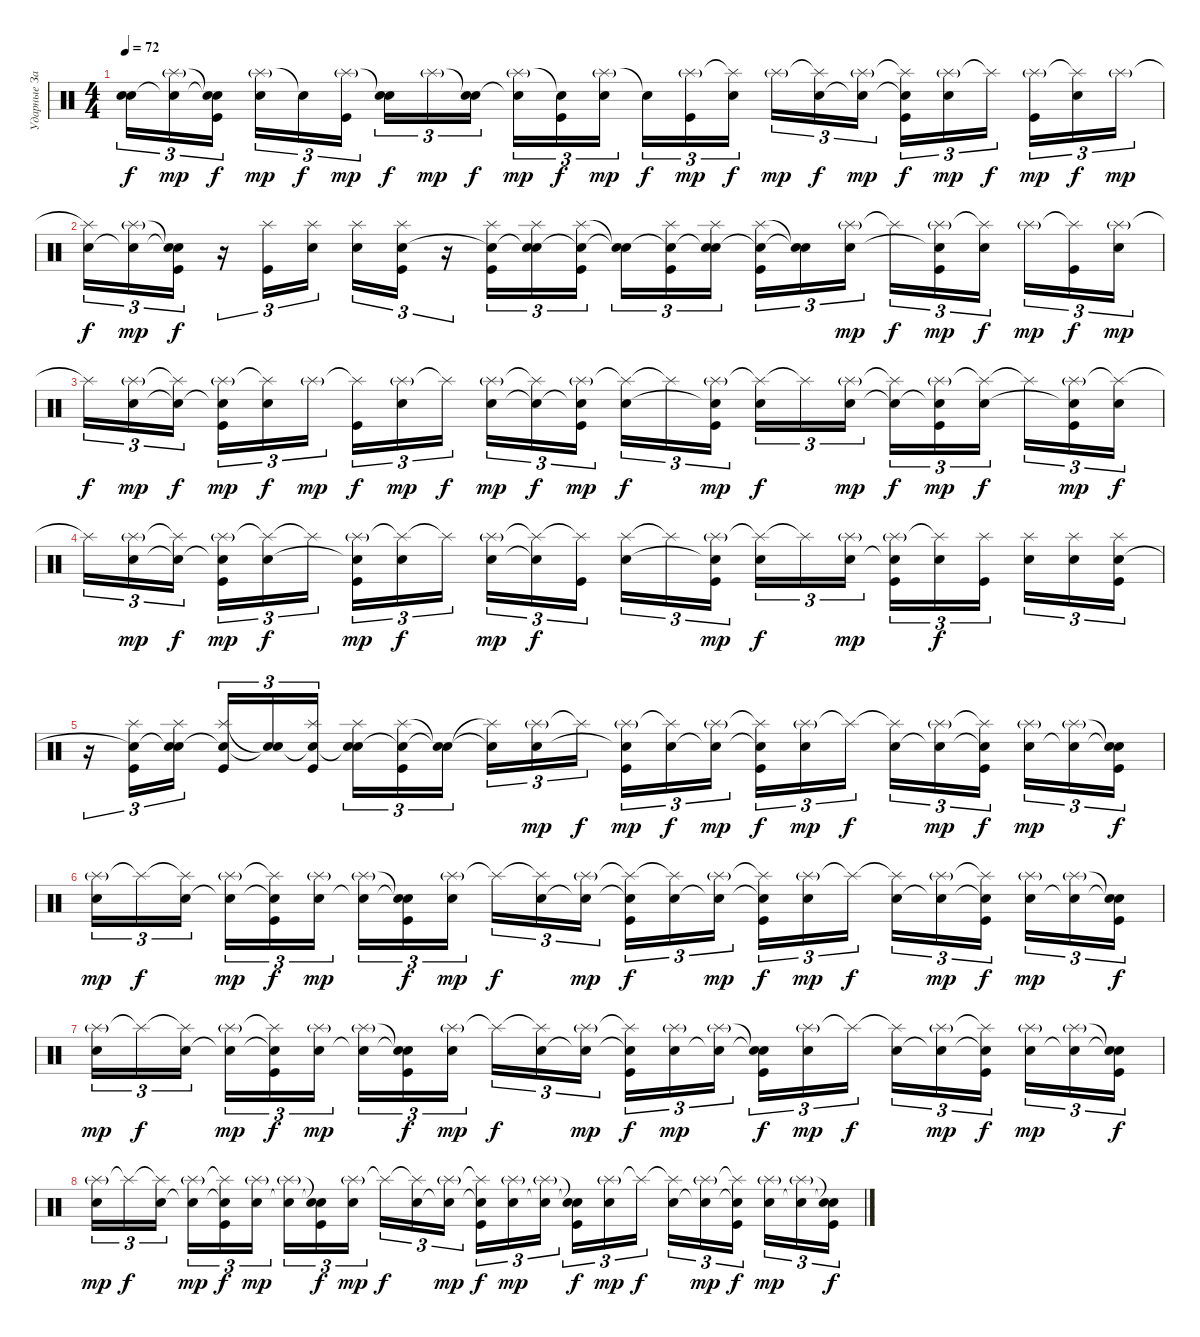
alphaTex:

\track ("Ударные Запарили(" "Ударные За") {instrument percussion}
\staff {score}
\articulation defaults
\ts (4 4)
\tempo 72
\clef neutral
\ks c
("Snare (hit)"{t} "Snare (hit) 2").16{tu (3 2) dy f} ("Splash (hit)"{g} "Snare (hit) 2"{t}).16{tu (3 2) dy mp} ("Snare (hit)"{t} "Snare (hit) 2"{t} "Kick (hit)").16{tu (3 2) dy f beam splitsecondary} ("Splash (hit)"{g} "Snare (hit) 2").16{tu (3 2) dy mp} "Snare (hit)"{t}.16{tu (3 2) dy f} ("Splash (hit)"{g} "Kick (hit)").16{tu (3 2) dy mp} ("Snare (hit)"{t} "Snare (hit) 2").16{tu (3 2) dy f} "Splash (hit)"{g}.16{tu (3 2) dy mp} ("Snare (hit)"{t} "Snare (hit) 2").16{tu (3 2) dy f beam splitsecondary} ("Splash (hit)"{g} "Snare (hit) 2"{t}).16{tu (3 2) dy mp} ("Snare (hit) 2"{t} "Kick (hit)").16{tu (3 2) dy f} ("Splash (hit)"{g} "Snare (hit) 2").16{tu (3 2) dy mp} "Snare (hit)"{t}.16{tu (3 2) dy f} ("Splash (hit)"{g} "Kick (hit)").16{tu (3 2) dy mp} ("Splash (hit)"{t} "Snare (hit) 2").16{tu (3 2) dy f beam splitsecondary} "Splash (hit)"{g}.16{tu (3 2) dy mp} ("Splash (hit)"{t} "Snare (hit) 2").16{tu (3 2) dy f} ("Splash (hit)"{g} "Snare (hit) 2"{t}).16{tu (3 2) dy mp} ("Splash (hit)"{t} "Snare (hit) 2"{t} "Kick (hit)").16{tu (3 2) dy f} ("Splash (hit)"{g} "Snare (hit) 2").16{tu (3 2) dy mp} "Splash (hit)"{t}.16{tu (3 2) dy f beam splitsecondary} ("Splash (hit)"{g} "Kick (hit)").16{tu (3 2) dy mp} ("Splash (hit)"{t} "Snare (hit) 2").16{tu (3 2) dy f} "Splash (hit)"{g}.16{tu (3 2) dy mp} |
("Splash (hit)"{t} "Snare (hit) 2").16{tu (3 2) dy f} ("Splash (hit)"{g} "Snare (hit) 2"{t}).16{tu (3 2) dy mp} ("Snare (hit)"{t} "Snare (hit) 2"{t} "Kick (hit)").16{tu (3 2) dy f} r.16{tu (3 2)} ("Splash (hit)" "Kick (hit)").16{tu (3 2)} ("Splash (hit)" "Snare (hit) 2").16{tu (3 2)} ("Splash (hit)" "Snare (hit) 2").16{tu (3 2)} ("Splash (hit)" "Snare (hit) 2" "Kick (hit)").16{tu (3 2)} r.16{tu (3 2)} ("Splash (hit)" "Snare (hit) 2"{t} "Kick (hit)").16{tu (3 2)} ("Splash (hit)" "Snare (hit) 2"{t} "Snare (hit) 2").16{tu (3 2)} ("Splash (hit)" "Snare (hit) 2"{t} "Kick (hit)").16{tu (3 2)} ("Snare (hit)"{t} "Snare (hit)"{t}).16{tu (3 2)} ("Splash (hit)" "Snare (hit) 2"{t} "Kick (hit)").16{tu (3 2)} ("Splash (hit)" "Snare (hit) 2"{t} "Snare (hit) 2").16{tu (3 2) beam splitsecondary} ("Splash (hit)" "Snare (hit) 2"{t} "Kick (hit)").16{tu (3 2)} ("Snare (hit)"{t} "Snare (hit)"{t}).16{tu (3 2)} ("Splash (hit)"{g} "Snare (hit) 2").16{tu (3 2) dy mp} "Splash (hit)"{t}.16{tu (3 2) dy f} ("Splash (hit)"{g} "Snare (hit) 2"{t} "Kick (hit)").16{tu (3 2) dy mp} ("Splash (hit)"{t} "Snare (hit) 2").16{tu (3 2) dy f beam splitsecondary} "Splash (hit)"{g}.16{tu (3 2) dy mp} ("Splash (hit)"{t} "Kick (hit)").16{tu (3 2) dy f} ("Splash (hit)"{g} "Snare (hit) 2").16{tu (3 2) dy mp} |
"Splash (hit)"{t}.16{tu (3 2) dy f} ("Splash (hit)"{g} "Snare (hit) 2").16{tu (3 2) dy mp} ("Splash (hit)"{t} "Snare (hit) 2"{t}).16{tu (3 2) dy f beam splitsecondary} ("Splash (hit)"{g} "Snare (hit) 2"{t} "Kick (hit)").16{tu (3 2) dy mp} ("Splash (hit)"{t} "Snare (hit) 2").16{tu (3 2) dy f} "Splash (hit)"{g}.16{tu (3 2) dy mp} ("Splash (hit)"{t} "Kick (hit)").16{tu (3 2) dy f} ("Splash (hit)"{g} "Snare (hit) 2").16{tu (3 2) dy mp} "Splash (hit)"{t}.16{tu (3 2) dy f beam splitsecondary} ("Splash (hit)"{g} "Snare (hit) 2").16{tu (3 2) dy mp} ("Splash (hit)"{t} "Snare (hit) 2"{t}).16{tu (3 2) dy f} ("Splash (hit)"{g} "Snare (hit) 2"{t} "Kick (hit)").16{tu (3 2) dy mp} ("Splash (hit)"{t} "Snare (hit) 2").16{tu (3 2) dy f} "Splash (hit)"{t}.16{tu (3 2)} ("Splash (hit)"{g} "Snare (hit) 2"{t} "Kick (hit)").16{tu (3 2) dy mp beam splitsecondary} ("Splash (hit)"{t} "Snare (hit) 2").16{tu (3 2) dy f} "Splash (hit)"{t}.16{tu (3 2)} ("Splash (hit)"{g} "Snare (hit) 2").16{tu (3 2) dy mp} ("Splash (hit)"{t} "Snare (hit) 2"{t}).16{tu (3 2) dy f} ("Splash (hit)"{g} "Snare (hit) 2"{t} "Kick (hit)").16{tu (3 2) dy mp} ("Splash (hit)"{t} "Snare (hit) 2").16{tu (3 2) dy f beam splitsecondary} "Splash (hit)"{t}.16{tu (3 2)} ("Splash (hit)"{g} "Snare (hit) 2"{t} "Kick (hit)").16{tu (3 2) dy mp} ("Splash (hit)"{t} "Snare (hit) 2").16{tu (3 2) dy f} |
"Splash (hit)"{t}.16{tu (3 2)} ("Splash (hit)"{g} "Snare (hit) 2").16{tu (3 2) dy mp} ("Splash (hit)"{t} "Snare (hit) 2"{t}).16{tu (3 2) dy f beam splitsecondary} ("Splash (hit)"{g} "Snare (hit) 2"{t} "Kick (hit)").16{tu (3 2) dy mp} ("Splash (hit)"{t} "Snare (hit) 2").16{tu (3 2) dy f} "Splash (hit)"{t}.16{tu (3 2)} ("Splash (hit)"{g} "Snare (hit) 2"{t} "Kick (hit)").16{tu (3 2) dy mp} ("Splash (hit)"{t} "Snare (hit) 2").16{tu (3 2) dy f} "Splash (hit)"{t}.16{tu (3 2) beam splitsecondary} ("Splash (hit)"{g} "Snare (hit) 2").16{tu (3 2) dy mp} ("Splash (hit)"{t} "Snare (hit) 2"{t}).16{tu (3 2) dy f} ("Splash (hit)"{t} "Kick (hit)").16{tu (3 2)} ("Splash (hit)" "Snare (hit) 2").16{tu (3 2)} "Splash (hit)"{t}.16{tu (3 2)} ("Splash (hit)"{g} "Snare (hit) 2"{t} "Kick (hit)").16{tu (3 2) dy mp beam splitsecondary} ("Splash (hit)"{t} "Snare (hit) 2").16{tu (3 2) dy f} "Splash (hit)"{t}.16{tu (3 2)} ("Splash (hit)"{g} "Snare (hit) 2").16{tu (3 2) dy mp} ("Splash (hit)"{g} "Snare (hit) 2"{t} "Kick (hit)").16{tu (3 2)} ("Splash (hit)"{t} "Snare (hit) 2").16{tu (3 2) dy f} ("Splash (hit)" "Kick (hit)").16{tu (3 2) beam splitsecondary} ("Splash (hit)" "Snare (hit) 2").16{tu (3 2)} ("Splash (hit)" "Snare (hit) 2").16{tu (3 2)} ("Splash (hit)" "Snare (hit) 2" "Kick (hit)").16{tu (3 2)} |
r.16{tu (3 2)} ("Splash (hit)" "Snare (hit) 2"{t} "Kick (hit)").16{tu (3 2)} ("Splash (hit)" "Snare (hit) 2"{t} "Snare (hit) 2").16{tu (3 2) beam splitsecondary} ("Splash (hit)" "Snare (hit) 2"{t} "Kick (hit)").16{tu (3 2)} ("Snare (hit)"{t} "Snare (hit)"{t}).16{tu (3 2)} ("Splash (hit)" "Snare (hit) 2"{t} "Kick (hit)").16{tu (3 2)} ("Splash (hit)" "Snare (hit) 2"{t} "Snare (hit) 2").16{tu (3 2)} ("Splash (hit)" "Snare (hit) 2"{t} "Kick (hit)").16{tu (3 2)} ("Snare (hit)"{t} "Snare (hit)"{t}).16{tu (3 2) beam splitsecondary} ("Splash (hit)"{t} "Snare (hit) 2"{t}).16{tu (3 2)} ("Splash (hit)"{g} "Snare (hit) 2").16{tu (3 2) dy mp} "Splash (hit)"{t}.16{tu (3 2) dy f} ("Splash (hit)"{g} "Snare (hit) 2"{t} "Kick (hit)").16{tu (3 2) dy mp} ("Splash (hit)"{t} "Snare (hit) 2").16{tu (3 2) dy f} ("Splash (hit)"{g} "Snare (hit) 2"{t}).16{tu (3 2) dy mp beam splitsecondary} ("Splash (hit)"{t} "Snare (hit) 2"{t} "Kick (hit)").16{tu (3 2) dy f} ("Splash (hit)"{g} "Snare (hit) 2").16{tu (3 2) dy mp} "Splash (hit)"{t}.16{tu (3 2) dy f} ("Splash (hit)"{t} "Snare (hit) 2").16{tu (3 2)} ("Splash (hit)"{g} "Snare (hit) 2"{t}).16{tu (3 2) dy mp} ("Splash (hit)"{t} "Snare (hit) 2"{t} "Kick (hit)").16{tu (3 2) dy f beam splitsecondary} ("Splash (hit)"{g} "Snare (hit) 2").16{tu (3 2) dy mp} ("Splash (hit)"{g} "Snare (hit) 2"{t}).16{tu (3 2)} ("Snare (hit)"{t} "Snare (hit) 2"{t} "Kick (hit)").16{tu (3 2) dy f} |
("Splash (hit)"{g} "Snare (hit) 2").16{tu (3 2) dy mp} "Splash (hit)"{t}.16{tu (3 2) dy f} ("Splash (hit)"{t} "Snare (hit) 2").16{tu (3 2) beam splitsecondary} ("Splash (hit)"{g} "Snare (hit) 2"{t}).16{tu (3 2) dy mp} ("Splash (hit)"{t} "Snare (hit) 2"{t} "Kick (hit)").16{tu (3 2) dy f} ("Splash (hit)"{g} "Snare (hit) 2").16{tu (3 2) dy mp} ("Splash (hit)"{g} "Snare (hit) 2"{t}).16{tu (3 2)} ("Snare (hit)"{t} "Snare (hit) 2"{t} "Kick (hit)").16{tu (3 2) dy f} ("Splash (hit)"{g} "Snare (hit) 2").16{tu (3 2) dy mp beam splitsecondary} "Splash (hit)"{t}.16{tu (3 2) dy f} ("Splash (hit)"{t} "Snare (hit) 2").16{tu (3 2)} ("Splash (hit)"{g} "Snare (hit) 2"{t}).16{tu (3 2) dy mp} ("Splash (hit)"{t} "Snare (hit) 2"{t} "Kick (hit)").16{tu (3 2) dy f} ("Splash (hit)"{t} "Snare (hit) 2").16{tu (3 2)} ("Splash (hit)"{g} "Snare (hit) 2"{t}).16{tu (3 2) dy mp beam splitsecondary} ("Splash (hit)"{t} "Snare (hit) 2"{t} "Kick (hit)").16{tu (3 2) dy f} ("Splash (hit)"{g} "Snare (hit) 2").16{tu (3 2) dy mp} "Splash (hit)"{t}.16{tu (3 2) dy f} ("Splash (hit)"{t} "Snare (hit) 2").16{tu (3 2)} ("Splash (hit)"{g} "Snare (hit) 2"{t}).16{tu (3 2) dy mp} ("Splash (hit)"{t} "Snare (hit) 2"{t} "Kick (hit)").16{tu (3 2) dy f beam splitsecondary} ("Splash (hit)"{g} "Snare (hit) 2").16{tu (3 2) dy mp} ("Splash (hit)"{g} "Snare (hit) 2"{t}).16{tu (3 2)} ("Snare (hit)"{t} "Snare (hit) 2"{t} "Kick (hit)").16{tu (3 2) dy f} |
("Splash (hit)"{g} "Snare (hit) 2").16{tu (3 2) dy mp} "Splash (hit)"{t}.16{tu (3 2) dy f} ("Splash (hit)"{t} "Snare (hit) 2").16{tu (3 2) beam splitsecondary} ("Splash (hit)"{g} "Snare (hit) 2"{t}).16{tu (3 2) dy mp} ("Splash (hit)"{t} "Snare (hit) 2"{t} "Kick (hit)").16{tu (3 2) dy f} ("Splash (hit)"{g} "Snare (hit) 2").16{tu (3 2) dy mp} ("Splash (hit)"{g} "Snare (hit) 2"{t}).16{tu (3 2)} ("Snare (hit)"{t} "Snare (hit) 2"{t} "Kick (hit)").16{tu (3 2) dy f} ("Splash (hit)"{g} "Snare (hit) 2").16{tu (3 2) dy mp beam splitsecondary} "Splash (hit)"{t}.16{tu (3 2) dy f} ("Splash (hit)"{t} "Snare (hit) 2").16{tu (3 2)} ("Splash (hit)"{g} "Snare (hit) 2"{t}).16{tu (3 2) dy mp} ("Splash (hit)"{t} "Snare (hit) 2"{t} "Kick (hit)").16{tu (3 2) dy f} ("Splash (hit)"{g} "Snare (hit) 2").16{tu (3 2) dy mp} ("Splash (hit)"{g} "Snare (hit) 2"{t}).16{tu (3 2) beam splitsecondary} ("Snare (hit)"{t} "Snare (hit) 2"{t} "Kick (hit)").16{tu (3 2) dy f} ("Splash (hit)"{g} "Snare (hit) 2").16{tu (3 2) dy mp} "Splash (hit)"{t}.16{tu (3 2) dy f} ("Splash (hit)"{t} "Snare (hit) 2").16{tu (3 2)} ("Splash (hit)"{g} "Snare (hit) 2"{t}).16{tu (3 2) dy mp} ("Splash (hit)"{t} "Snare (hit) 2"{t} "Kick (hit)").16{tu (3 2) dy f beam splitsecondary} ("Splash (hit)"{g} "Snare (hit) 2").16{tu (3 2) dy mp} ("Splash (hit)"{g} "Snare (hit) 2"{t}).16{tu (3 2)} ("Snare (hit)"{t} "Snare (hit) 2"{t} "Kick (hit)").16{tu (3 2) dy f} |
("Splash (hit)"{g} "Snare (hit) 2").16{tu (3 2) dy mp} "Splash (hit)"{t}.16{tu (3 2) dy f} ("Splash (hit)"{t} "Snare (hit) 2").16{tu (3 2) beam splitsecondary} ("Splash (hit)"{g} "Snare (hit) 2"{t}).16{tu (3 2) dy mp} ("Splash (hit)"{t} "Snare (hit) 2"{t} "Kick (hit)").16{tu (3 2) dy f} ("Splash (hit)"{g} "Snare (hit) 2").16{tu (3 2) dy mp} ("Splash (hit)"{g} "Snare (hit) 2"{t}).16{tu (3 2)} ("Snare (hit)"{t} "Snare (hit) 2"{t} "Kick (hit)").16{tu (3 2) dy f} ("Splash (hit)"{g} "Snare (hit) 2").16{tu (3 2) dy mp beam splitsecondary} "Splash (hit)"{t}.16{tu (3 2) dy f} ("Splash (hit)"{t} "Snare (hit) 2").16{tu (3 2)} ("Splash (hit)"{g} "Snare (hit) 2"{t}).16{tu (3 2) dy mp} ("Splash (hit)"{t} "Snare (hit) 2"{t} "Kick (hit)").16{tu (3 2) dy f} ("Splash (hit)"{g} "Snare (hit) 2").16{tu (3 2) dy mp} ("Splash (hit)"{g} "Snare (hit) 2"{t}).16{tu (3 2) beam splitsecondary} ("Snare (hit)"{t} "Snare (hit) 2"{t} "Kick (hit)").16{tu (3 2) dy f} ("Splash (hit)"{g} "Snare (hit) 2").16{tu (3 2) dy mp} "Splash (hit)"{t}.16{tu (3 2) dy f} ("Splash (hit)"{t} "Snare (hit) 2").16{tu (3 2)} ("Splash (hit)"{g} "Snare (hit) 2"{t}).16{tu (3 2) dy mp} ("Splash (hit)"{t} "Snare (hit) 2"{t} "Kick (hit)").16{tu (3 2) dy f beam splitsecondary} ("Splash (hit)"{g} "Snare (hit) 2").16{tu (3 2) dy mp} ("Splash (hit)"{g} "Snare (hit) 2"{t}).16{tu (3 2)} ("Snare (hit)"{t} "Snare (hit) 2"{t} "Kick (hit)").16{tu (3 2) dy f}
